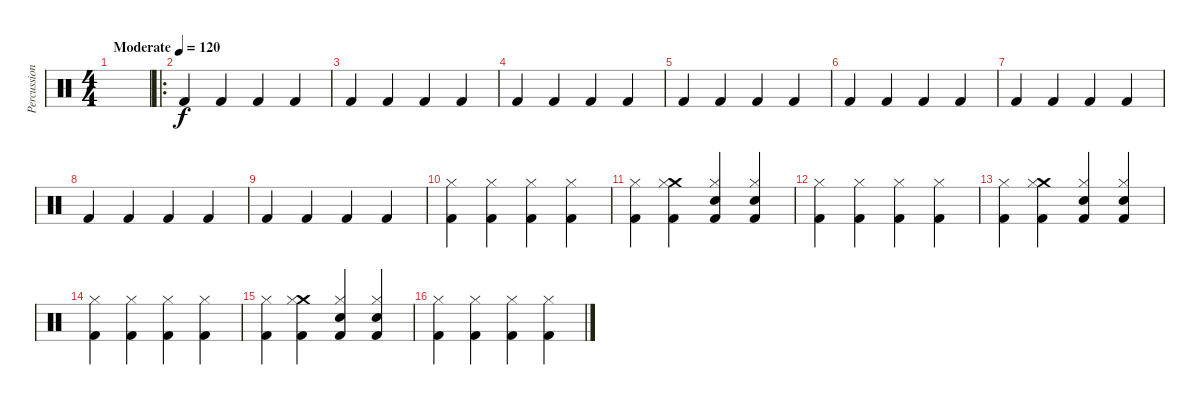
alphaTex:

\track ("Percussion" "Percussion") {instrument percussion}
\staff {score}
\articulation defaults
\ts (4 4)
\tempo (120 "Moderate")
\tempo 300
\tempo (120 "Moderate")
\clef neutral
\ks c
|
\ro "Kick (hit) 2".4 "Kick (hit) 2".4 "Kick (hit) 2".4 "Kick (hit) 2".4
|
"Kick (hit) 2".4 "Kick (hit) 2".4 "Kick (hit) 2".4 "Kick (hit) 2".4 |
"Kick (hit) 2".4 "Kick (hit) 2".4 "Kick (hit) 2".4 "Kick (hit) 2".4 |
"Kick (hit) 2".4 "Kick (hit) 2".4 "Kick (hit) 2".4 "Kick (hit) 2".4 |
"Kick (hit) 2".4 "Kick (hit) 2".4 "Kick (hit) 2".4 "Kick (hit) 2".4 |
"Kick (hit) 2".4 "Kick (hit) 2".4 "Kick (hit) 2".4 "Kick (hit) 2".4 |
"Kick (hit) 2".4 "Kick (hit) 2".4 "Kick (hit) 2".4 "Kick (hit) 2".4 |
"Kick (hit) 2".4 "Kick (hit) 2".4 "Kick (hit) 2".4 "Kick (hit) 2".4 |
("Hi-Hat (closed)" "Kick (hit) 2").4 ("Hi-Hat (closed)" "Kick (hit) 2").4 ("Hi-Hat (closed)" "Kick (hit) 2").4 ("Hi-Hat (closed)" "Kick (hit) 2").4 |
("Hi-Hat (closed)" "Kick (hit) 2").4 ("Crash medium (hit)" "Hi-Hat (closed)" "Kick (hit) 2").4 ("Snare (hit) 2" "Hi-Hat (closed)" "Kick (hit) 2").4 ("Snare (hit) 2" "Hi-Hat (closed)" "Kick (hit) 2").4 |
("Hi-Hat (closed)" "Kick (hit) 2").4 ("Hi-Hat (closed)" "Kick (hit) 2").4 ("Hi-Hat (closed)" "Kick (hit) 2").4 ("Hi-Hat (closed)" "Kick (hit) 2").4 |
("Hi-Hat (closed)" "Kick (hit) 2").4 ("Crash medium (hit)" "Hi-Hat (closed)" "Kick (hit) 2").4 ("Snare (hit) 2" "Hi-Hat (closed)" "Kick (hit) 2").4 ("Snare (hit) 2" "Hi-Hat (closed)" "Kick (hit) 2").4 |
("Hi-Hat (closed)" "Kick (hit) 2").4 ("Hi-Hat (closed)" "Kick (hit) 2").4 ("Hi-Hat (closed)" "Kick (hit) 2").4 ("Hi-Hat (closed)" "Kick (hit) 2").4 |
("Hi-Hat (closed)" "Kick (hit) 2").4 ("Crash medium (hit)" "Hi-Hat (closed)" "Kick (hit) 2").4 ("Snare (hit) 2" "Hi-Hat (closed)" "Kick (hit) 2").4 ("Snare (hit) 2" "Hi-Hat (closed)" "Kick (hit) 2").4 |
("Hi-Hat (closed)" "Kick (hit) 2").4 ("Hi-Hat (closed)" "Kick (hit) 2").4 ("Hi-Hat (closed)" "Kick (hit) 2").4 ("Hi-Hat (closed)" "Kick (hit) 2").4
